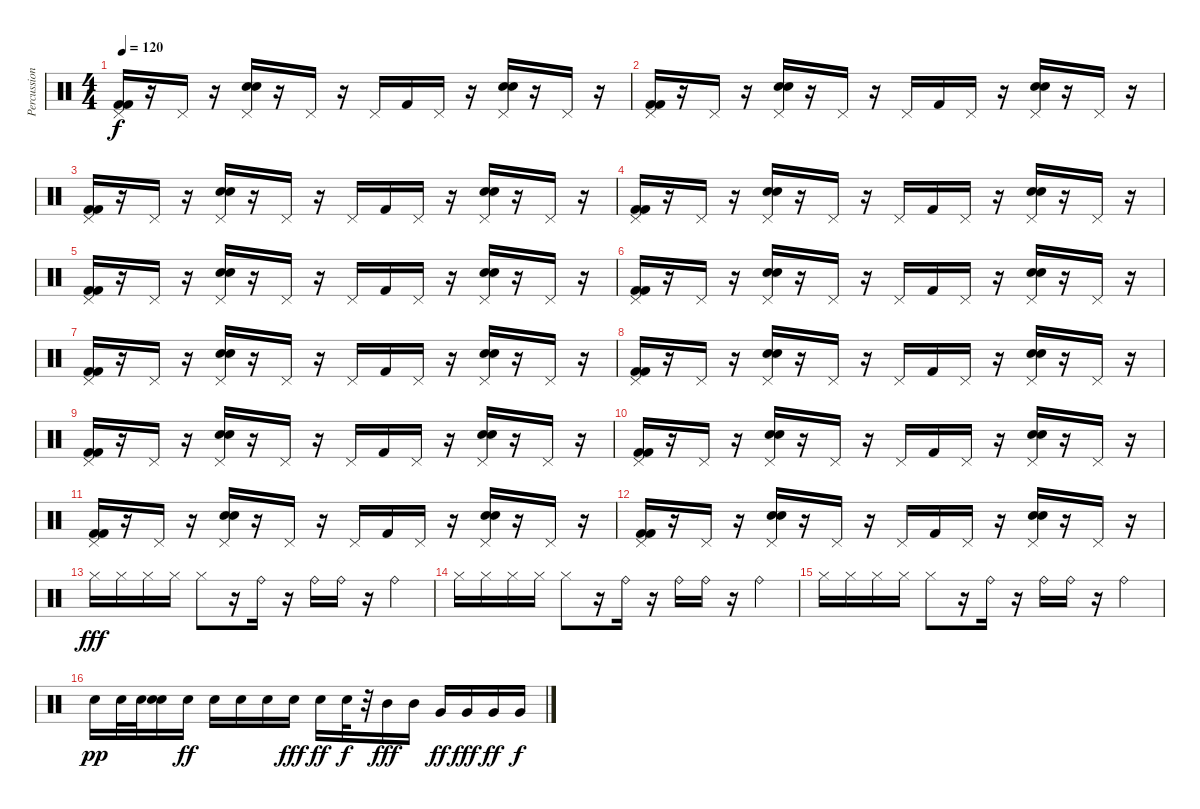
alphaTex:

\track ("Percussion" "Percussion") {instrument percussion}
\staff {score}
\articulation defaults
\ts (4 4)
\tempo 120
\clef neutral
\ks c
("Pedal Hi-Hat (hit)" "Kick (hit) 2" "Kick (hit) 2").16{dy f} r.16 "Pedal Hi-Hat (hit)".16 r.16 ("Pedal Hi-Hat (hit)" "Electric Snare (hit)" "Electric Snare (hit)").16 r.16 "Pedal Hi-Hat (hit)".16 r.16 "Pedal Hi-Hat (hit)".16 "Kick (hit) 2".16 "Pedal Hi-Hat (hit)".16 r.16 ("Pedal Hi-Hat (hit)" "Electric Snare (hit)" "Electric Snare (hit)").16 r.16 "Pedal Hi-Hat (hit)".16 r.16 |
("Pedal Hi-Hat (hit)" "Kick (hit) 2" "Kick (hit) 2").16 r.16 "Pedal Hi-Hat (hit)".16 r.16 ("Pedal Hi-Hat (hit)" "Electric Snare (hit)" "Electric Snare (hit)").16 r.16 "Pedal Hi-Hat (hit)".16 r.16 "Pedal Hi-Hat (hit)".16 "Kick (hit) 2".16 "Pedal Hi-Hat (hit)".16 r.16 ("Pedal Hi-Hat (hit)" "Electric Snare (hit)" "Electric Snare (hit)").16 r.16 "Pedal Hi-Hat (hit)".16 r.16 |
("Pedal Hi-Hat (hit)" "Kick (hit) 2" "Kick (hit) 2").16 r.16 "Pedal Hi-Hat (hit)".16 r.16 ("Pedal Hi-Hat (hit)" "Electric Snare (hit)" "Electric Snare (hit)").16 r.16 "Pedal Hi-Hat (hit)".16 r.16 "Pedal Hi-Hat (hit)".16 "Kick (hit) 2".16 "Pedal Hi-Hat (hit)".16 r.16 ("Pedal Hi-Hat (hit)" "Electric Snare (hit)" "Electric Snare (hit)").16 r.16 "Pedal Hi-Hat (hit)".16 r.16 |
("Pedal Hi-Hat (hit)" "Kick (hit) 2" "Kick (hit) 2").16 r.16 "Pedal Hi-Hat (hit)".16 r.16 ("Pedal Hi-Hat (hit)" "Electric Snare (hit)" "Electric Snare (hit)").16 r.16 "Pedal Hi-Hat (hit)".16 r.16 "Pedal Hi-Hat (hit)".16 "Kick (hit) 2".16 "Pedal Hi-Hat (hit)".16 r.16 ("Pedal Hi-Hat (hit)" "Electric Snare (hit)" "Electric Snare (hit)").16 r.16 "Pedal Hi-Hat (hit)".16 r.16 |
("Pedal Hi-Hat (hit)" "Kick (hit) 2" "Kick (hit) 2").16 r.16 "Pedal Hi-Hat (hit)".16 r.16 ("Pedal Hi-Hat (hit)" "Electric Snare (hit)" "Electric Snare (hit)").16 r.16 "Pedal Hi-Hat (hit)".16 r.16 "Pedal Hi-Hat (hit)".16 "Kick (hit) 2".16 "Pedal Hi-Hat (hit)".16 r.16 ("Pedal Hi-Hat (hit)" "Electric Snare (hit)" "Electric Snare (hit)").16 r.16 "Pedal Hi-Hat (hit)".16 r.16 |
("Pedal Hi-Hat (hit)" "Kick (hit) 2" "Kick (hit) 2").16 r.16 "Pedal Hi-Hat (hit)".16 r.16 ("Pedal Hi-Hat (hit)" "Electric Snare (hit)" "Electric Snare (hit)").16 r.16 "Pedal Hi-Hat (hit)".16 r.16 "Pedal Hi-Hat (hit)".16 "Kick (hit) 2".16 "Pedal Hi-Hat (hit)".16 r.16 ("Pedal Hi-Hat (hit)" "Electric Snare (hit)" "Electric Snare (hit)").16 r.16 "Pedal Hi-Hat (hit)".16 r.16 |
("Pedal Hi-Hat (hit)" "Kick (hit) 2" "Kick (hit) 2").16 r.16 "Pedal Hi-Hat (hit)".16 r.16 ("Pedal Hi-Hat (hit)" "Electric Snare (hit)" "Electric Snare (hit)").16 r.16 "Pedal Hi-Hat (hit)".16 r.16 "Pedal Hi-Hat (hit)".16 "Kick (hit) 2".16 "Pedal Hi-Hat (hit)".16 r.16 ("Pedal Hi-Hat (hit)" "Electric Snare (hit)" "Electric Snare (hit)").16 r.16 "Pedal Hi-Hat (hit)".16 r.16 |
("Pedal Hi-Hat (hit)" "Kick (hit) 2" "Kick (hit) 2").16 r.16 "Pedal Hi-Hat (hit)".16 r.16 ("Pedal Hi-Hat (hit)" "Electric Snare (hit)" "Electric Snare (hit)").16 r.16 "Pedal Hi-Hat (hit)".16 r.16 "Pedal Hi-Hat (hit)".16 "Kick (hit) 2".16 "Pedal Hi-Hat (hit)".16 r.16 ("Pedal Hi-Hat (hit)" "Electric Snare (hit)" "Electric Snare (hit)").16 r.16 "Pedal Hi-Hat (hit)".16 r.16 |
("Pedal Hi-Hat (hit)" "Kick (hit) 2" "Kick (hit) 2").16 r.16 "Pedal Hi-Hat (hit)".16 r.16 ("Pedal Hi-Hat (hit)" "Electric Snare (hit)" "Electric Snare (hit)").16 r.16 "Pedal Hi-Hat (hit)".16 r.16 "Pedal Hi-Hat (hit)".16 "Kick (hit) 2".16 "Pedal Hi-Hat (hit)".16 r.16 ("Pedal Hi-Hat (hit)" "Electric Snare (hit)" "Electric Snare (hit)").16 r.16 "Pedal Hi-Hat (hit)".16 r.16 |
("Pedal Hi-Hat (hit)" "Kick (hit) 2" "Kick (hit) 2").16 r.16 "Pedal Hi-Hat (hit)".16 r.16 ("Pedal Hi-Hat (hit)" "Electric Snare (hit)" "Electric Snare (hit)").16 r.16 "Pedal Hi-Hat (hit)".16 r.16 "Pedal Hi-Hat (hit)".16 "Kick (hit) 2".16 "Pedal Hi-Hat (hit)".16 r.16 ("Pedal Hi-Hat (hit)" "Electric Snare (hit)" "Electric Snare (hit)").16 r.16 "Pedal Hi-Hat (hit)".16 r.16 |
("Pedal Hi-Hat (hit)" "Kick (hit) 2" "Kick (hit) 2").16 r.16 "Pedal Hi-Hat (hit)".16 r.16 ("Pedal Hi-Hat (hit)" "Electric Snare (hit)" "Electric Snare (hit)").16 r.16 "Pedal Hi-Hat (hit)".16 r.16 "Pedal Hi-Hat (hit)".16 "Kick (hit) 2".16 "Pedal Hi-Hat (hit)".16 r.16 ("Pedal Hi-Hat (hit)" "Electric Snare (hit)" "Electric Snare (hit)").16 r.16 "Pedal Hi-Hat (hit)".16 r.16 |
("Pedal Hi-Hat (hit)" "Kick (hit) 2" "Kick (hit) 2").16 r.16 "Pedal Hi-Hat (hit)".16 r.16 ("Pedal Hi-Hat (hit)" "Electric Snare (hit)" "Electric Snare (hit)").16 r.16 "Pedal Hi-Hat (hit)".16 r.16 "Pedal Hi-Hat (hit)".16 "Kick (hit) 2".16 "Pedal Hi-Hat (hit)".16 r.16 ("Pedal Hi-Hat (hit)" "Electric Snare (hit)" "Electric Snare (hit)").16 r.16 "Pedal Hi-Hat (hit)".16 r.16 |
"Hi-Hat (closed)".16{dy fff} "Hi-Hat (closed)".16 "Hi-Hat (closed)".16 "Hi-Hat (closed)".16 "Hi-Hat (closed)".8 r.16 "Ride (bell)".16 r.16 "Ride (bell)".16 "Ride (bell)".16 r.16 "Ride (bell)".4 |
"Hi-Hat (closed)".16 "Hi-Hat (closed)".16 "Hi-Hat (closed)".16 "Hi-Hat (closed)".16 "Hi-Hat (closed)".8 r.16 "Ride (bell)".16 r.16 "Ride (bell)".16 "Ride (bell)".16 r.16 "Ride (bell)".4 |
"Hi-Hat (closed)".16 "Hi-Hat (closed)".16 "Hi-Hat (closed)".16 "Hi-Hat (closed)".16 "Hi-Hat (closed)".8 r.16 "Ride (bell)".16 r.16 "Ride (bell)".16 "Ride (bell)".16 r.16 "Ride (bell)".4 |
"Electric Snare (hit)".16{dy pp} "Electric Snare (hit)".32 "Electric Snare (hit)".32 ("Electric Snare (hit)" "Electric Snare (hit)").16 "Electric Snare (hit)".16{dy ff} "Electric Snare (hit)".16 "Electric Snare (hit)".16 "Electric Snare (hit)".16 "Electric Snare (hit)".16{dy fff} "Electric Snare (hit)".16{dy ff} "Electric Snare (hit)".32{dy f} r.32 "Mid Tom (hit)".16{dy fff} "Mid Tom (hit)".16 "Very Low Tom (hit)".16{dy ff} "Very Low Tom (hit)".16{dy fff} "Very Low Tom (hit)".16{dy ff} "Very Low Tom (hit)".16{dy f}
